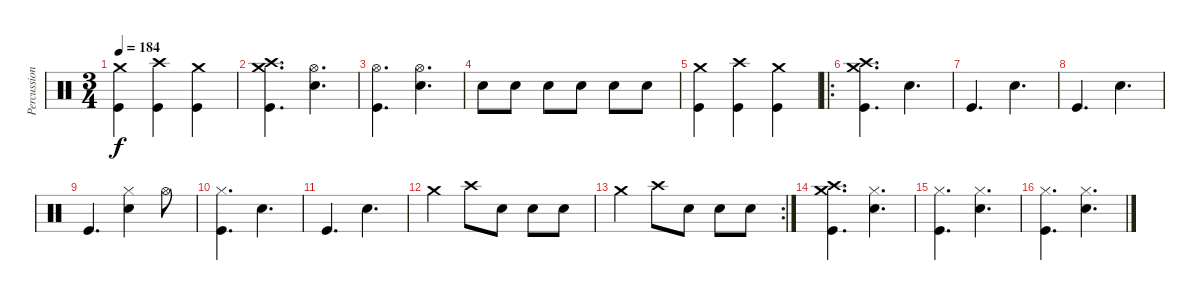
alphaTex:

\track ("Percussion" "Percussion") {instrument percussion}
\staff {score}
\articulation defaults
\ts (3 4)
\tempo 184
\clef neutral
\ks c
("Crash medium (hit)" "Kick (hit)").4{dy f} ("Crash high (hit)" "Kick (hit)").4 ("Crash medium (hit)" "Kick (hit)").4 |
("Crash medium (hit)" "Crash high (hit)" "Kick (hit)").4{d} ("Hi-Hat (open)" "Snare (hit) 2").4{d} |
("Hi-Hat (open)" "Kick (hit)").4{d} ("Hi-Hat (open)" "Snare (hit) 2").4{d} |
"Snare (hit) 2".8 "Snare (hit) 2".8 "Snare (hit) 2".8 "Snare (hit) 2".8 "Snare (hit) 2".8 "Snare (hit) 2".8 |
("Crash medium (hit)" "Kick (hit)").4 ("Crash high (hit)" "Kick (hit)").4 ("Crash medium (hit)" "Kick (hit)").4 |
\ro
("Crash medium (hit)" "Crash high (hit)" "Kick (hit)").4{d} "Snare (hit) 2".4{d} |
"Kick (hit)".4{d} "Snare (hit) 2".4{d} |
"Kick (hit)".4{d} "Snare (hit) 2".4{d} |
"Kick (hit)".4{d} ("Hi-Hat (closed)" "Snare (hit) 2").4 "Hi-Hat (open)".8 |
("Hi-Hat (closed)" "Kick (hit)").4{d} "Snare (hit) 2".4{d} |
"Kick (hit)".4{d} "Snare (hit) 2".4{d} |
"Crash medium (hit)".4 "Crash high (hit)".8 "Snare (hit) 2".8 "Snare (hit) 2".8 "Snare (hit) 2".8 |
\rc 2 "Crash medium (hit)".4 "Crash high (hit)".8 "Snare (hit) 2".8 "Snare (hit) 2".8 "Snare (hit) 2".8
|
("Crash medium (hit)" "Crash high (hit)" "Kick (hit)").4{d} ("Snare (hit) 2" "Hi-Hat (closed)").4{d} |
("Hi-Hat (closed)" "Kick (hit)").4{d} ("Snare (hit) 2" "Hi-Hat (closed)").4{d} |
("Hi-Hat (closed)" "Kick (hit)").4{d} ("Snare (hit) 2" "Hi-Hat (closed)").4{d}
